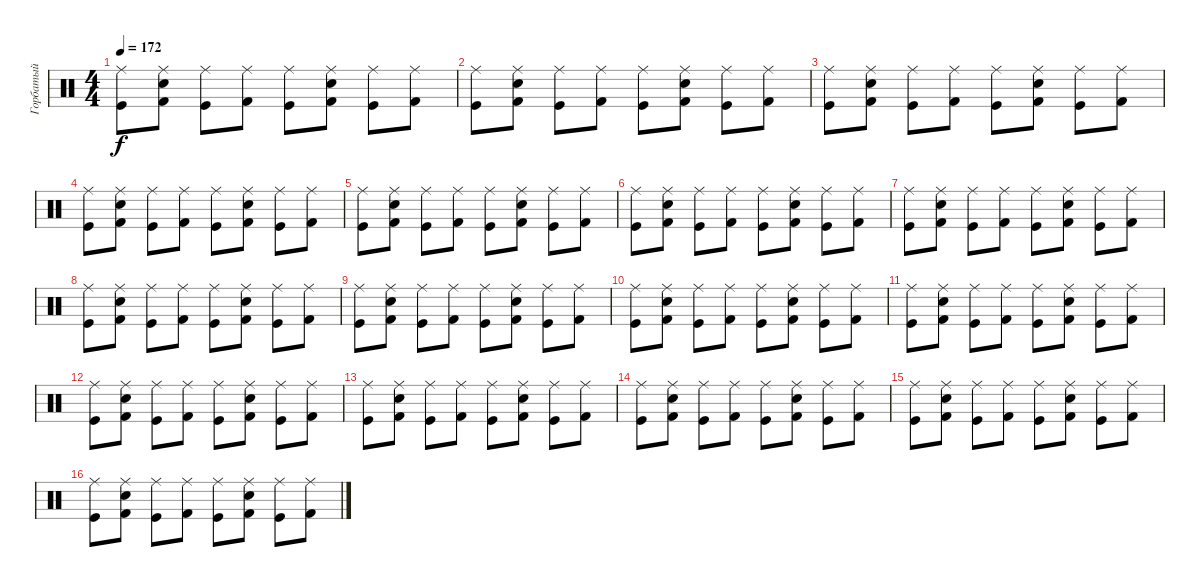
\track ("Горбатый" "Горбатый") {instrument percussion}
\staff {score}
\articulation defaults
\ts (4 4)
\tempo 172
\clef neutral
\ks c
("Ride (middle)" "Kick (hit)").8{dy f} ("Electric Snare (hit)" "Ride (middle)" "Kick (hit) 2").8 ("Ride (middle)" "Kick (hit)").8 ("Ride (middle)" "Kick (hit) 2").8 ("Ride (middle)" "Kick (hit)").8 ("Electric Snare (hit)" "Ride (middle)" "Kick (hit) 2").8 ("Ride (middle)" "Kick (hit)").8 ("Ride (middle)" "Kick (hit) 2").8 |
("Ride (middle)" "Kick (hit)").8 ("Electric Snare (hit)" "Ride (middle)" "Kick (hit) 2").8 ("Ride (middle)" "Kick (hit)").8 ("Ride (middle)" "Kick (hit) 2").8 ("Ride (middle)" "Kick (hit)").8 ("Electric Snare (hit)" "Ride (middle)" "Kick (hit) 2").8 ("Ride (middle)" "Kick (hit)").8 ("Ride (middle)" "Kick (hit) 2").8 |
("Ride (middle)" "Kick (hit)").8 ("Electric Snare (hit)" "Ride (middle)" "Kick (hit) 2").8 ("Ride (middle)" "Kick (hit)").8 ("Ride (middle)" "Kick (hit) 2").8 ("Ride (middle)" "Kick (hit)").8 ("Electric Snare (hit)" "Ride (middle)" "Kick (hit) 2").8 ("Ride (middle)" "Kick (hit)").8 ("Ride (middle)" "Kick (hit) 2").8 |
("Ride (middle)" "Kick (hit)").8 ("Electric Snare (hit)" "Ride (middle)" "Kick (hit) 2").8 ("Ride (middle)" "Kick (hit)").8 ("Ride (middle)" "Kick (hit) 2").8 ("Ride (middle)" "Kick (hit)").8 ("Electric Snare (hit)" "Ride (middle)" "Kick (hit) 2").8 ("Ride (middle)" "Kick (hit)").8 ("Ride (middle)" "Kick (hit) 2").8 |
("Ride (middle)" "Kick (hit)").8 ("Electric Snare (hit)" "Ride (middle)" "Kick (hit) 2").8 ("Ride (middle)" "Kick (hit)").8 ("Ride (middle)" "Kick (hit) 2").8 ("Ride (middle)" "Kick (hit)").8 ("Electric Snare (hit)" "Ride (middle)" "Kick (hit) 2").8 ("Ride (middle)" "Kick (hit)").8 ("Ride (middle)" "Kick (hit) 2").8 |
("Ride (middle)" "Kick (hit)").8 ("Electric Snare (hit)" "Ride (middle)" "Kick (hit) 2").8 ("Ride (middle)" "Kick (hit)").8 ("Ride (middle)" "Kick (hit) 2").8 ("Ride (middle)" "Kick (hit)").8 ("Electric Snare (hit)" "Ride (middle)" "Kick (hit) 2").8 ("Ride (middle)" "Kick (hit)").8 ("Ride (middle)" "Kick (hit) 2").8 |
("Ride (middle)" "Kick (hit)").8 ("Electric Snare (hit)" "Ride (middle)" "Kick (hit) 2").8 ("Ride (middle)" "Kick (hit)").8 ("Ride (middle)" "Kick (hit) 2").8 ("Ride (middle)" "Kick (hit)").8 ("Electric Snare (hit)" "Ride (middle)" "Kick (hit) 2").8 ("Ride (middle)" "Kick (hit)").8 ("Ride (middle)" "Kick (hit) 2").8 |
("Ride (middle)" "Kick (hit)").8 ("Electric Snare (hit)" "Ride (middle)" "Kick (hit) 2").8 ("Ride (middle)" "Kick (hit)").8 ("Ride (middle)" "Kick (hit) 2").8 ("Ride (middle)" "Kick (hit)").8 ("Electric Snare (hit)" "Ride (middle)" "Kick (hit) 2").8 ("Ride (middle)" "Kick (hit)").8 ("Ride (middle)" "Kick (hit) 2").8 |
("Ride (middle)" "Kick (hit)").8 ("Electric Snare (hit)" "Ride (middle)" "Kick (hit) 2").8 ("Ride (middle)" "Kick (hit)").8 ("Ride (middle)" "Kick (hit) 2").8 ("Ride (middle)" "Kick (hit)").8 ("Electric Snare (hit)" "Ride (middle)" "Kick (hit) 2").8 ("Ride (middle)" "Kick (hit)").8 ("Ride (middle)" "Kick (hit) 2").8 |
("Ride (middle)" "Kick (hit)").8 ("Electric Snare (hit)" "Ride (middle)" "Kick (hit) 2").8 ("Ride (middle)" "Kick (hit)").8 ("Ride (middle)" "Kick (hit) 2").8 ("Ride (middle)" "Kick (hit)").8 ("Electric Snare (hit)" "Ride (middle)" "Kick (hit) 2").8 ("Ride (middle)" "Kick (hit)").8 ("Ride (middle)" "Kick (hit) 2").8 |
("Ride (middle)" "Kick (hit)").8 ("Electric Snare (hit)" "Ride (middle)" "Kick (hit) 2").8 ("Ride (middle)" "Kick (hit)").8 ("Ride (middle)" "Kick (hit) 2").8 ("Ride (middle)" "Kick (hit)").8 ("Electric Snare (hit)" "Ride (middle)" "Kick (hit) 2").8 ("Ride (middle)" "Kick (hit)").8 ("Ride (middle)" "Kick (hit) 2").8 |
("Ride (middle)" "Kick (hit)").8 ("Electric Snare (hit)" "Ride (middle)" "Kick (hit) 2").8 ("Ride (middle)" "Kick (hit)").8 ("Ride (middle)" "Kick (hit) 2").8 ("Ride (middle)" "Kick (hit)").8 ("Electric Snare (hit)" "Ride (middle)" "Kick (hit) 2").8 ("Ride (middle)" "Kick (hit)").8 ("Ride (middle)" "Kick (hit) 2").8 |
("Ride (middle)" "Kick (hit)").8 ("Electric Snare (hit)" "Ride (middle)" "Kick (hit) 2").8 ("Ride (middle)" "Kick (hit)").8 ("Ride (middle)" "Kick (hit) 2").8 ("Ride (middle)" "Kick (hit)").8 ("Electric Snare (hit)" "Ride (middle)" "Kick (hit) 2").8 ("Ride (middle)" "Kick (hit)").8 ("Ride (middle)" "Kick (hit) 2").8 |
("Ride (middle)" "Kick (hit)").8 ("Electric Snare (hit)" "Ride (middle)" "Kick (hit) 2").8 ("Ride (middle)" "Kick (hit)").8 ("Ride (middle)" "Kick (hit) 2").8 ("Ride (middle)" "Kick (hit)").8 ("Electric Snare (hit)" "Ride (middle)" "Kick (hit) 2").8 ("Ride (middle)" "Kick (hit)").8 ("Ride (middle)" "Kick (hit) 2").8 |
("Ride (middle)" "Kick (hit)").8 ("Electric Snare (hit)" "Ride (middle)" "Kick (hit) 2").8 ("Ride (middle)" "Kick (hit)").8 ("Ride (middle)" "Kick (hit) 2").8 ("Ride (middle)" "Kick (hit)").8 ("Electric Snare (hit)" "Ride (middle)" "Kick (hit) 2").8 ("Ride (middle)" "Kick (hit)").8 ("Ride (middle)" "Kick (hit) 2").8 |
("Ride (middle)" "Kick (hit)").8 ("Electric Snare (hit)" "Ride (middle)" "Kick (hit) 2").8 ("Ride (middle)" "Kick (hit)").8 ("Ride (middle)" "Kick (hit) 2").8 ("Ride (middle)" "Kick (hit)").8 ("Electric Snare (hit)" "Ride (middle)" "Kick (hit) 2").8 ("Ride (middle)" "Kick (hit)").8 ("Ride (middle)" "Kick (hit) 2").8
